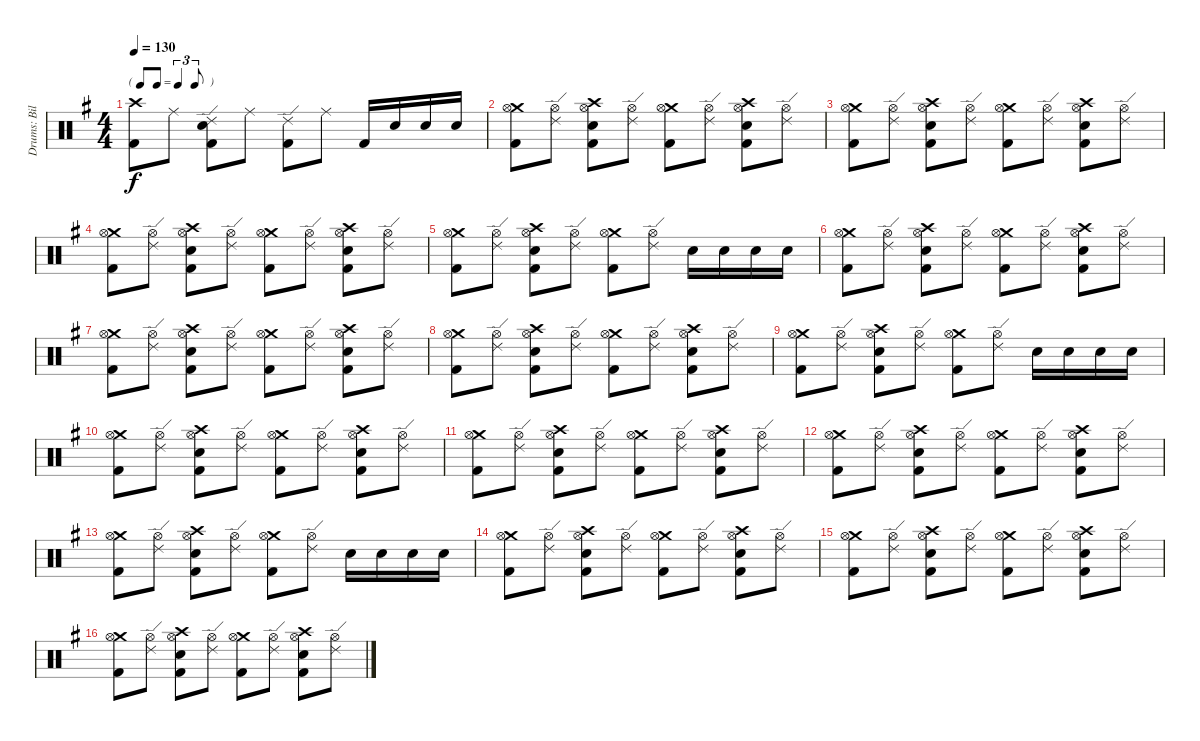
\track ("Drums: Bill" "Drums: Bil") {instrument percussion}
\staff {score}
\articulation defaults
\ts (4 4)
\tf triplet8th
\tempo 130
\clef neutral
\ks g
("Crash high (hit)" "Kick (hit) 2").8{dy f} "Ride (middle)".8 ("Ride (edge) 2" "Snare (hit) 2" "Kick (hit) 2").8 "Ride (middle)".8 ("Ride (edge) 2" "Kick (hit) 2").8 "Ride (middle)".8 "Kick (hit) 2".16 "Snare (hit) 2".16 "Snare (hit) 2".16 "Snare (hit) 2".16 |
("Crash medium (hit)" "Hi-Hat (open)" "Kick (hit) 2").8 ("Ride (edge) 2" "Hi-Hat (open)").8 ("Crash high (hit)" "Hi-Hat (open)" "Snare (hit) 2" "Kick (hit) 2").8 ("Ride (edge) 2" "Hi-Hat (open)").8 ("Crash medium (hit)" "Hi-Hat (open)" "Kick (hit) 2").8 ("Ride (edge) 2" "Hi-Hat (open)").8 ("Crash high (hit)" "Hi-Hat (open)" "Snare (hit) 2" "Kick (hit) 2").8 ("Ride (edge) 2" "Hi-Hat (open)").8 |
("Crash medium (hit)" "Hi-Hat (open)" "Kick (hit) 2").8 ("Ride (edge) 2" "Hi-Hat (open)").8 ("Crash high (hit)" "Hi-Hat (open)" "Snare (hit) 2" "Kick (hit) 2").8 ("Ride (edge) 2" "Hi-Hat (open)").8 ("Crash medium (hit)" "Hi-Hat (open)" "Kick (hit) 2").8 ("Ride (edge) 2" "Hi-Hat (open)").8 ("Crash high (hit)" "Hi-Hat (open)" "Snare (hit) 2" "Kick (hit) 2").8 ("Ride (edge) 2" "Hi-Hat (open)").8 |
("Crash medium (hit)" "Hi-Hat (open)" "Kick (hit) 2").8 ("Ride (edge) 2" "Hi-Hat (open)").8 ("Crash high (hit)" "Hi-Hat (open)" "Snare (hit) 2" "Kick (hit) 2").8 ("Ride (edge) 2" "Hi-Hat (open)").8 ("Crash medium (hit)" "Hi-Hat (open)" "Kick (hit) 2").8 ("Ride (edge) 2" "Hi-Hat (open)").8 ("Crash high (hit)" "Hi-Hat (open)" "Snare (hit) 2" "Kick (hit) 2").8 ("Ride (edge) 2" "Hi-Hat (open)").8 |
("Crash medium (hit)" "Hi-Hat (open)" "Kick (hit) 2").8 ("Ride (edge) 2" "Hi-Hat (open)").8 ("Crash high (hit)" "Hi-Hat (open)" "Snare (hit) 2" "Kick (hit) 2").8 ("Ride (edge) 2" "Hi-Hat (open)").8 ("Crash medium (hit)" "Hi-Hat (open)" "Kick (hit) 2").8 ("Ride (edge) 2" "Hi-Hat (open)").8 "Snare (hit) 2".16 "Snare (hit) 2".16 "Snare (hit) 2".16 "Snare (hit) 2".16 |
("Crash medium (hit)" "Hi-Hat (open)" "Kick (hit) 2").8 ("Ride (edge) 2" "Hi-Hat (open)").8 ("Crash high (hit)" "Hi-Hat (open)" "Snare (hit) 2" "Kick (hit) 2").8 ("Ride (edge) 2" "Hi-Hat (open)").8 ("Crash medium (hit)" "Hi-Hat (open)" "Kick (hit) 2").8 ("Ride (edge) 2" "Hi-Hat (open)").8 ("Crash high (hit)" "Hi-Hat (open)" "Snare (hit) 2" "Kick (hit) 2").8 ("Ride (edge) 2" "Hi-Hat (open)").8 |
("Crash medium (hit)" "Hi-Hat (open)" "Kick (hit) 2").8 ("Ride (edge) 2" "Hi-Hat (open)").8 ("Crash high (hit)" "Hi-Hat (open)" "Snare (hit) 2" "Kick (hit) 2").8 ("Ride (edge) 2" "Hi-Hat (open)").8 ("Crash medium (hit)" "Hi-Hat (open)" "Kick (hit) 2").8 ("Ride (edge) 2" "Hi-Hat (open)").8 ("Crash high (hit)" "Hi-Hat (open)" "Snare (hit) 2" "Kick (hit) 2").8 ("Ride (edge) 2" "Hi-Hat (open)").8 |
("Crash medium (hit)" "Hi-Hat (open)" "Kick (hit) 2").8 ("Ride (edge) 2" "Hi-Hat (open)").8 ("Crash high (hit)" "Hi-Hat (open)" "Snare (hit) 2" "Kick (hit) 2").8 ("Ride (edge) 2" "Hi-Hat (open)").8 ("Crash medium (hit)" "Hi-Hat (open)" "Kick (hit) 2").8 ("Ride (edge) 2" "Hi-Hat (open)").8 ("Crash high (hit)" "Hi-Hat (open)" "Snare (hit) 2" "Kick (hit) 2").8 ("Ride (edge) 2" "Hi-Hat (open)").8 |
("Crash medium (hit)" "Hi-Hat (open)" "Kick (hit) 2").8 ("Ride (edge) 2" "Hi-Hat (open)").8 ("Crash high (hit)" "Hi-Hat (open)" "Snare (hit) 2" "Kick (hit) 2").8 ("Ride (edge) 2" "Hi-Hat (open)").8 ("Crash medium (hit)" "Hi-Hat (open)" "Kick (hit) 2").8 ("Ride (edge) 2" "Hi-Hat (open)").8 "Snare (hit) 2".16 "Snare (hit) 2".16 "Snare (hit) 2".16 "Snare (hit) 2".16 |
("Crash medium (hit)" "Hi-Hat (open)" "Kick (hit) 2").8 ("Ride (edge) 2" "Hi-Hat (open)").8 ("Crash high (hit)" "Hi-Hat (open)" "Snare (hit) 2" "Kick (hit) 2").8 ("Ride (edge) 2" "Hi-Hat (open)").8 ("Crash medium (hit)" "Hi-Hat (open)" "Kick (hit) 2").8 ("Ride (edge) 2" "Hi-Hat (open)").8 ("Crash high (hit)" "Hi-Hat (open)" "Snare (hit) 2" "Kick (hit) 2").8 ("Ride (edge) 2" "Hi-Hat (open)").8 |
("Crash medium (hit)" "Hi-Hat (open)" "Kick (hit) 2").8 ("Ride (edge) 2" "Hi-Hat (open)").8 ("Crash high (hit)" "Hi-Hat (open)" "Snare (hit) 2" "Kick (hit) 2").8 ("Ride (edge) 2" "Hi-Hat (open)").8 ("Crash medium (hit)" "Hi-Hat (open)" "Kick (hit) 2").8 ("Ride (edge) 2" "Hi-Hat (open)").8 ("Crash high (hit)" "Hi-Hat (open)" "Snare (hit) 2" "Kick (hit) 2").8 ("Ride (edge) 2" "Hi-Hat (open)").8 |
("Crash medium (hit)" "Hi-Hat (open)" "Kick (hit) 2").8 ("Ride (edge) 2" "Hi-Hat (open)").8 ("Crash high (hit)" "Hi-Hat (open)" "Snare (hit) 2" "Kick (hit) 2").8 ("Ride (edge) 2" "Hi-Hat (open)").8 ("Crash medium (hit)" "Hi-Hat (open)" "Kick (hit) 2").8 ("Ride (edge) 2" "Hi-Hat (open)").8 ("Crash high (hit)" "Hi-Hat (open)" "Snare (hit) 2" "Kick (hit) 2").8 ("Ride (edge) 2" "Hi-Hat (open)").8 |
("Crash medium (hit)" "Hi-Hat (open)" "Kick (hit) 2").8 ("Ride (edge) 2" "Hi-Hat (open)").8 ("Crash high (hit)" "Hi-Hat (open)" "Snare (hit) 2" "Kick (hit) 2").8 ("Ride (edge) 2" "Hi-Hat (open)").8 ("Crash medium (hit)" "Hi-Hat (open)" "Kick (hit) 2").8 ("Ride (edge) 2" "Hi-Hat (open)").8 "Snare (hit) 2".16 "Snare (hit) 2".16 "Snare (hit) 2".16 "Snare (hit) 2".16 |
("Crash medium (hit)" "Hi-Hat (open)" "Kick (hit) 2").8 ("Ride (edge) 2" "Hi-Hat (open)").8 ("Crash high (hit)" "Hi-Hat (open)" "Snare (hit) 2" "Kick (hit) 2").8 ("Ride (edge) 2" "Hi-Hat (open)").8 ("Crash medium (hit)" "Hi-Hat (open)" "Kick (hit) 2").8 ("Ride (edge) 2" "Hi-Hat (open)").8 ("Crash high (hit)" "Hi-Hat (open)" "Snare (hit) 2" "Kick (hit) 2").8 ("Ride (edge) 2" "Hi-Hat (open)").8 |
("Crash medium (hit)" "Hi-Hat (open)" "Kick (hit) 2").8 ("Ride (edge) 2" "Hi-Hat (open)").8 ("Crash high (hit)" "Hi-Hat (open)" "Snare (hit) 2" "Kick (hit) 2").8 ("Ride (edge) 2" "Hi-Hat (open)").8 ("Crash medium (hit)" "Hi-Hat (open)" "Kick (hit) 2").8 ("Ride (edge) 2" "Hi-Hat (open)").8 ("Crash high (hit)" "Hi-Hat (open)" "Snare (hit) 2" "Kick (hit) 2").8 ("Ride (edge) 2" "Hi-Hat (open)").8 |
("Crash medium (hit)" "Hi-Hat (open)" "Kick (hit) 2").8 ("Ride (edge) 2" "Hi-Hat (open)").8 ("Crash high (hit)" "Hi-Hat (open)" "Snare (hit) 2" "Kick (hit) 2").8 ("Ride (edge) 2" "Hi-Hat (open)").8 ("Crash medium (hit)" "Hi-Hat (open)" "Kick (hit) 2").8 ("Ride (edge) 2" "Hi-Hat (open)").8 ("Crash high (hit)" "Hi-Hat (open)" "Snare (hit) 2" "Kick (hit) 2").8 ("Ride (edge) 2" "Hi-Hat (open)").8
